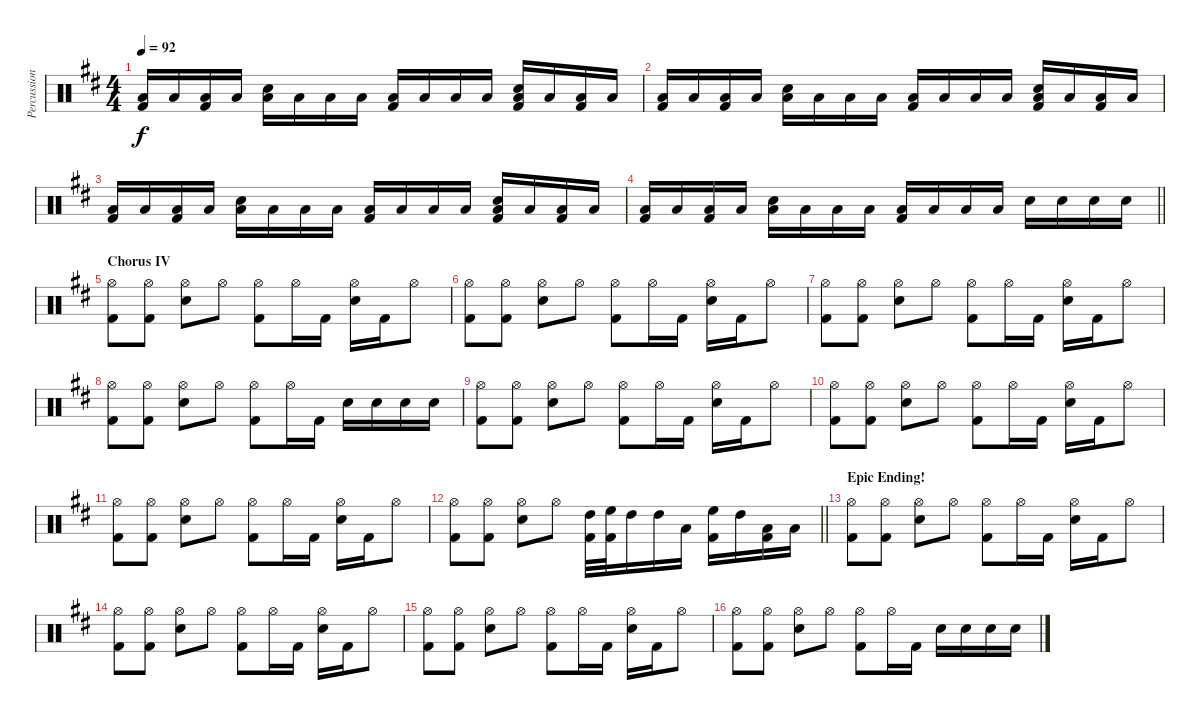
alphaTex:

\track ("Percussion" "Percussion") {instrument percussion}
\staff {score}
\articulation defaults
\ts (4 4)
\tempo 92
\clef neutral
\ks d
("Low Tom (hit)" "Kick (hit) 2").16{dy f} "Low Floor Tom (hit)".16 ("Low Tom (hit)" "Kick (hit) 2").16 "Low Floor Tom (hit)".16 ("Low Tom (hit)" "Snare (hit) 2").16 "Low Floor Tom (hit)".16 "Low Tom (hit)".16 "Low Floor Tom (hit)".16 ("Low Tom (hit)" "Kick (hit) 2").16 "Low Floor Tom (hit)".16 "Low Tom (hit)".16 "Low Floor Tom (hit)".16 ("Low Tom (hit)" "Snare (hit) 2" "Kick (hit) 2").16 "Low Floor Tom (hit)".16 ("Low Tom (hit)" "Kick (hit) 2").16 "Low Floor Tom (hit)".16 |
("Low Tom (hit)" "Kick (hit) 2").16 "Low Floor Tom (hit)".16 ("Low Tom (hit)" "Kick (hit) 2").16 "Low Floor Tom (hit)".16 ("Low Tom (hit)" "Snare (hit) 2").16 "Low Floor Tom (hit)".16 "Low Tom (hit)".16 "Low Floor Tom (hit)".16 ("Low Tom (hit)" "Kick (hit) 2").16 "Low Floor Tom (hit)".16 "Low Tom (hit)".16 "Low Floor Tom (hit)".16 ("Low Tom (hit)" "Snare (hit) 2" "Kick (hit) 2").16 "Low Floor Tom (hit)".16 ("Low Tom (hit)" "Kick (hit) 2").16 "Low Floor Tom (hit)".16 |
("Low Tom (hit)" "Kick (hit) 2").16 "Low Floor Tom (hit)".16 ("Low Tom (hit)" "Kick (hit) 2").16 "Low Floor Tom (hit)".16 ("Low Tom (hit)" "Snare (hit) 2").16 "Low Floor Tom (hit)".16 "Low Tom (hit)".16 "Low Floor Tom (hit)".16 ("Low Tom (hit)" "Kick (hit) 2").16 "Low Floor Tom (hit)".16 "Low Tom (hit)".16 "Low Floor Tom (hit)".16 ("Low Tom (hit)" "Snare (hit) 2" "Kick (hit) 2").16 "Low Floor Tom (hit)".16 ("Low Tom (hit)" "Kick (hit) 2").16 "Low Floor Tom (hit)".16 |
\barLineRight lightlight
("Low Tom (hit)" "Kick (hit) 2").16 "Low Floor Tom (hit)".16 ("Low Tom (hit)" "Kick (hit) 2").16 "Low Floor Tom (hit)".16 ("Low Tom (hit)" "Snare (hit) 2").16 "Low Floor Tom (hit)".16 "Low Tom (hit)".16 "Low Floor Tom (hit)".16 ("Low Tom (hit)" "Kick (hit) 2").16 "Low Floor Tom (hit)".16 "Low Tom (hit)".16 "Low Floor Tom (hit)".16 "Snare (hit) 2".16 "Snare (hit) 2".16 "Snare (hit) 2".16 "Snare (hit) 2".16 |
\section ("" "Chorus IV")
("Hi-Hat (open)" "Kick (hit) 2").8 ("Hi-Hat (open)" "Kick (hit) 2").8 ("Hi-Hat (open)" "Snare (hit) 2").8 "Hi-Hat (open)".8 ("Hi-Hat (open)" "Kick (hit) 2").8 "Hi-Hat (open)".16 "Kick (hit) 2".16 ("Hi-Hat (open)" "Snare (hit) 2").16 "Kick (hit) 2".16 "Hi-Hat (open)".8 |
("Hi-Hat (open)" "Kick (hit) 2").8 ("Hi-Hat (open)" "Kick (hit) 2").8 ("Hi-Hat (open)" "Snare (hit) 2").8 "Hi-Hat (open)".8 ("Hi-Hat (open)" "Kick (hit) 2").8 "Hi-Hat (open)".16 "Kick (hit) 2".16 ("Hi-Hat (open)" "Snare (hit) 2").16 "Kick (hit) 2".16 "Hi-Hat (open)".8 |
("Hi-Hat (open)" "Kick (hit) 2").8 ("Hi-Hat (open)" "Kick (hit) 2").8 ("Hi-Hat (open)" "Snare (hit) 2").8 "Hi-Hat (open)".8 ("Hi-Hat (open)" "Kick (hit) 2").8 "Hi-Hat (open)".16 "Kick (hit) 2".16 ("Hi-Hat (open)" "Snare (hit) 2").16 "Kick (hit) 2".16 "Hi-Hat (open)".8 |
("Hi-Hat (open)" "Kick (hit) 2").8 ("Hi-Hat (open)" "Kick (hit) 2").8 ("Hi-Hat (open)" "Snare (hit) 2").8 "Hi-Hat (open)".8 ("Hi-Hat (open)" "Kick (hit) 2").8 "Hi-Hat (open)".16 "Kick (hit) 2".16 "Snare (hit) 2".16 "Snare (hit) 2".16 "Snare (hit) 2".16 "Snare (hit) 2".16 |
("Hi-Hat (open)" "Kick (hit) 2").8 ("Hi-Hat (open)" "Kick (hit) 2").8 ("Hi-Hat (open)" "Snare (hit) 2").8 "Hi-Hat (open)".8 ("Hi-Hat (open)" "Kick (hit) 2").8 "Hi-Hat (open)".16 "Kick (hit) 2".16 ("Hi-Hat (open)" "Snare (hit) 2").16 "Kick (hit) 2".16 "Hi-Hat (open)".8 |
("Hi-Hat (open)" "Kick (hit) 2").8 ("Hi-Hat (open)" "Kick (hit) 2").8 ("Hi-Hat (open)" "Snare (hit) 2").8 "Hi-Hat (open)".8 ("Hi-Hat (open)" "Kick (hit) 2").8 "Hi-Hat (open)".16 "Kick (hit) 2".16 ("Hi-Hat (open)" "Snare (hit) 2").16 "Kick (hit) 2".16 "Hi-Hat (open)".8 |
("Hi-Hat (open)" "Kick (hit) 2").8 ("Hi-Hat (open)" "Kick (hit) 2").8 ("Hi-Hat (open)" "Snare (hit) 2").8 "Hi-Hat (open)".8 ("Hi-Hat (open)" "Kick (hit) 2").8 "Hi-Hat (open)".16 "Kick (hit) 2".16 ("Hi-Hat (open)" "Snare (hit) 2").16 "Kick (hit) 2".16 "Hi-Hat (open)".8 |
\barLineRight lightlight
("Hi-Hat (open)" "Kick (hit) 2").8 ("Hi-Hat (open)" "Kick (hit) 2").8 ("Hi-Hat (open)" "Snare (hit) 2").8 "Hi-Hat (open)".8 ("High Tom (hit)" "Kick (hit) 2").32 ("High Floor Tom (hit)" "Kick (hit) 2").32 "High Tom (hit)".16 "High Tom (hit)".16 "Low Tom (hit)".16 ("High Floor Tom (hit)" "Kick (hit) 2").16 "High Tom (hit)".16 ("Low Tom (hit)" "Kick (hit) 2").16 "Low Floor Tom (hit)".16 |
\section ("" "Epic Ending!")
("Hi-Hat (open)" "Kick (hit) 2").8 ("Hi-Hat (open)" "Kick (hit) 2").8 ("Hi-Hat (open)" "Snare (hit) 2").8 "Hi-Hat (open)".8 ("Hi-Hat (open)" "Kick (hit) 2").8 "Hi-Hat (open)".16 "Kick (hit) 2".16 ("Hi-Hat (open)" "Snare (hit) 2").16 "Kick (hit) 2".16 "Hi-Hat (open)".8 |
("Hi-Hat (open)" "Kick (hit) 2").8 ("Hi-Hat (open)" "Kick (hit) 2").8 ("Hi-Hat (open)" "Snare (hit) 2").8 "Hi-Hat (open)".8 ("Hi-Hat (open)" "Kick (hit) 2").8 "Hi-Hat (open)".16 "Kick (hit) 2".16 ("Hi-Hat (open)" "Snare (hit) 2").16 "Kick (hit) 2".16 "Hi-Hat (open)".8 |
("Hi-Hat (open)" "Kick (hit) 2").8 ("Hi-Hat (open)" "Kick (hit) 2").8 ("Hi-Hat (open)" "Snare (hit) 2").8 "Hi-Hat (open)".8 ("Hi-Hat (open)" "Kick (hit) 2").8 "Hi-Hat (open)".16 "Kick (hit) 2".16 ("Hi-Hat (open)" "Snare (hit) 2").16 "Kick (hit) 2".16 "Hi-Hat (open)".8 |
("Hi-Hat (open)" "Kick (hit) 2").8 ("Hi-Hat (open)" "Kick (hit) 2").8 ("Hi-Hat (open)" "Snare (hit) 2").8 "Hi-Hat (open)".8 ("Hi-Hat (open)" "Kick (hit) 2").8 "Hi-Hat (open)".16 "Kick (hit) 2".16 "Snare (hit) 2".16 "Snare (hit) 2".16 "Snare (hit) 2".16 "Snare (hit) 2".16
